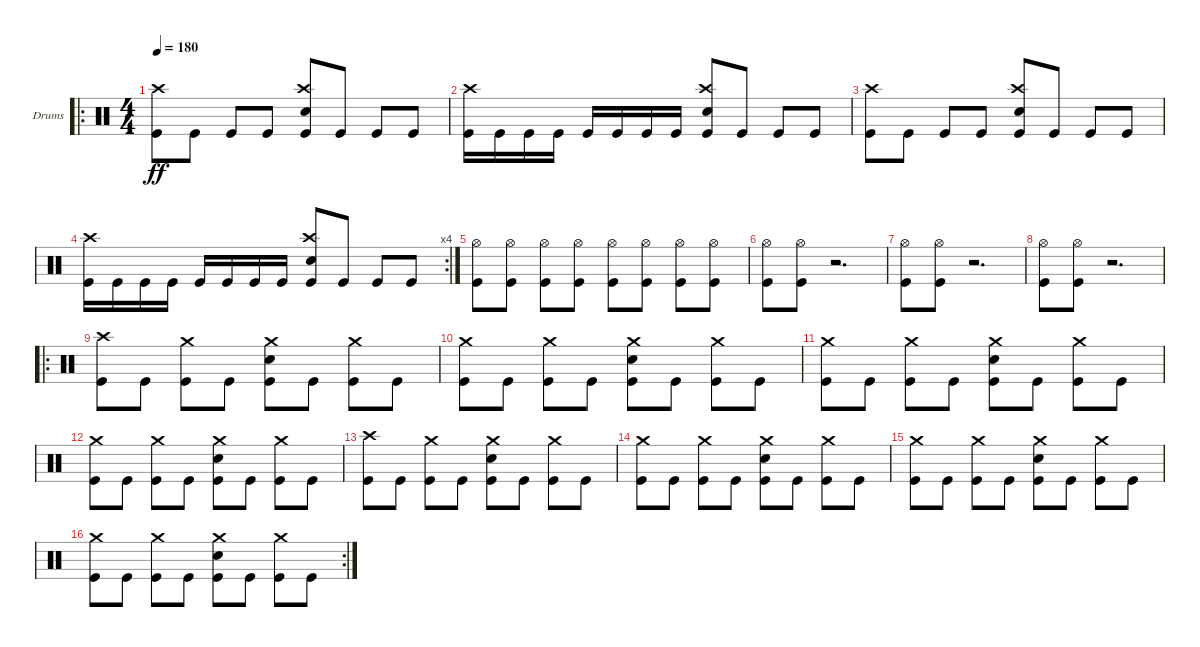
\bracketExtendMode groupsimilarinstruments
\firstSystemTrackNameOrientation horizontal
\otherSystemsTrackNameOrientation horizontal
\track ("Drumkit" "Drums") {instrument percussion}
\staff {score}
\articulation defaults
\ro
\ts (4 4)
\tempo 180
\clef neutral
\ks c
("Kick (hit)" "Crash high (hit)").8{dy ff} "Kick (hit)".8 "Kick (hit)".8 "Kick (hit)".8 ("Kick (hit)" "Crash high (hit)" "Snare (hit) 2").8 "Kick (hit)".8 "Kick (hit)".8 "Kick (hit)".8 |
("Kick (hit)" "Crash high (hit)").16 "Kick (hit)".16 "Kick (hit)".16 "Kick (hit)".16 "Kick (hit)".16 "Kick (hit)".16 "Kick (hit)".16 "Kick (hit)".16 ("Kick (hit)" "Crash high (hit)" "Snare (hit) 2").8 "Kick (hit)".8 "Kick (hit)".8 "Kick (hit)".8 |
("Kick (hit)" "Crash high (hit)").8 "Kick (hit)".8 "Kick (hit)".8 "Kick (hit)".8 ("Kick (hit)" "Crash high (hit)" "Snare (hit) 2").8 "Kick (hit)".8 "Kick (hit)".8 "Kick (hit)".8 |
\rc 4
("Kick (hit)" "Crash high (hit)").16 "Kick (hit)".16 "Kick (hit)".16 "Kick (hit)".16 "Kick (hit)".16 "Kick (hit)".16 "Kick (hit)".16 "Kick (hit)".16 ("Kick (hit)" "Crash high (hit)" "Snare (hit) 2").8 "Kick (hit)".8 "Kick (hit)".8 "Kick (hit)".8 |
("Kick (hit)" "Hi-Hat (open)").8 ("Kick (hit)" "Hi-Hat (open)").8 ("Kick (hit)" "Hi-Hat (open)").8 ("Kick (hit)" "Hi-Hat (open)").8 ("Kick (hit)" "Hi-Hat (open)").8 ("Kick (hit)" "Hi-Hat (open)").8 ("Kick (hit)" "Hi-Hat (open)").8 ("Kick (hit)" "Hi-Hat (open)").8 |
("Kick (hit)" "Hi-Hat (open)").8 ("Kick (hit)" "Hi-Hat (open)").8 r.2{d} |
("Kick (hit)" "Hi-Hat (open)").8 ("Kick (hit)" "Hi-Hat (open)").8 r.2{d} |
("Kick (hit)" "Hi-Hat (open)").8 ("Kick (hit)" "Hi-Hat (open)").8 r.2{d} |
\ro
("Kick (hit)" "Crash high (hit)").8 "Kick (hit)".8 ("Kick (hit)" "Crash medium (hit)").8 "Kick (hit)".8 ("Kick (hit)" "Crash medium (hit)" "Snare (hit) 2").8 "Kick (hit)".8 ("Kick (hit)" "Crash medium (hit)").8 "Kick (hit)".8 |
("Kick (hit)" "Crash medium (hit)").8 "Kick (hit)".8 ("Kick (hit)" "Crash medium (hit)").8 "Kick (hit)".8 ("Kick (hit)" "Crash medium (hit)" "Snare (hit) 2").8 "Kick (hit)".8 ("Kick (hit)" "Crash medium (hit)").8 "Kick (hit)".8 |
("Kick (hit)" "Crash medium (hit)").8 "Kick (hit)".8 ("Kick (hit)" "Crash medium (hit)").8 "Kick (hit)".8 ("Kick (hit)" "Crash medium (hit)" "Snare (hit) 2").8 "Kick (hit)".8 ("Kick (hit)" "Crash medium (hit)").8 "Kick (hit)".8 |
("Kick (hit)" "Crash medium (hit)").8 "Kick (hit)".8 ("Kick (hit)" "Crash medium (hit)").8 "Kick (hit)".8 ("Kick (hit)" "Crash medium (hit)" "Snare (hit) 2").8 "Kick (hit)".8 ("Kick (hit)" "Crash medium (hit)").8 "Kick (hit)".8 |
("Kick (hit)" "Crash high (hit)").8 "Kick (hit)".8 ("Kick (hit)" "Crash medium (hit)").8 "Kick (hit)".8 ("Kick (hit)" "Crash medium (hit)" "Snare (hit) 2").8 "Kick (hit)".8 ("Kick (hit)" "Crash medium (hit)").8 "Kick (hit)".8 |
("Kick (hit)" "Crash medium (hit)").8 "Kick (hit)".8 ("Kick (hit)" "Crash medium (hit)").8 "Kick (hit)".8 ("Kick (hit)" "Crash medium (hit)" "Snare (hit) 2").8 "Kick (hit)".8 ("Kick (hit)" "Crash medium (hit)").8 "Kick (hit)".8 |
("Kick (hit)" "Crash medium (hit)").8 "Kick (hit)".8 ("Kick (hit)" "Crash medium (hit)").8 "Kick (hit)".8 ("Kick (hit)" "Crash medium (hit)" "Snare (hit) 2").8 "Kick (hit)".8 ("Kick (hit)" "Crash medium (hit)").8 "Kick (hit)".8 |
\rc 2
("Kick (hit)" "Crash medium (hit)").8 "Kick (hit)".8 ("Kick (hit)" "Crash medium (hit)").8 "Kick (hit)".8 ("Kick (hit)" "Crash medium (hit)" "Snare (hit) 2").8 "Kick (hit)".8 ("Kick (hit)" "Crash medium (hit)").8 "Kick (hit)".8
